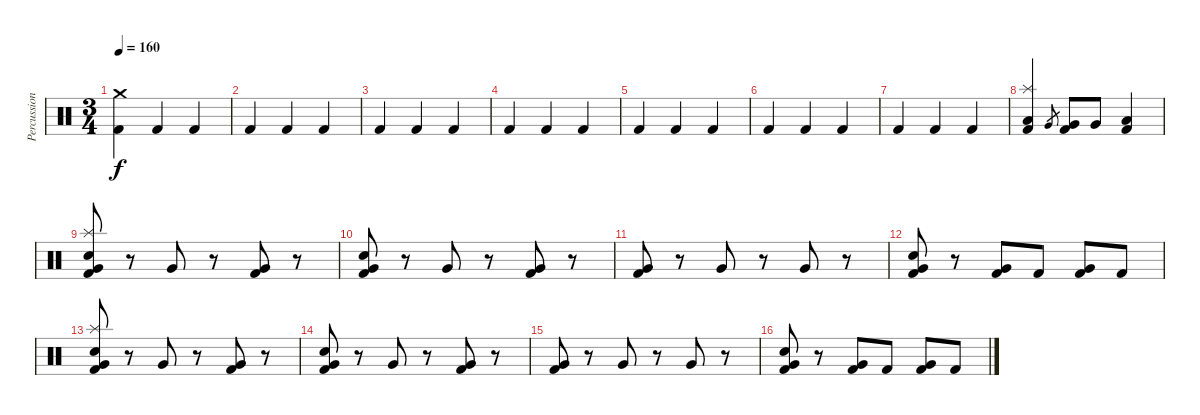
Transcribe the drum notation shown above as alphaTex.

\track ("Percussion" "Percussion") {instrument percussion}
\staff {score}
\articulation defaults
\ts (3 4)
\tempo 160
\clef neutral
\ks c
("Crash medium (hit)" "Kick (hit) 2").4{dy f} "Kick (hit) 2".4 "Kick (hit) 2".4 |
"Kick (hit) 2".4 "Kick (hit) 2".4 "Kick (hit) 2".4 |
"Kick (hit) 2".4 "Kick (hit) 2".4 "Kick (hit) 2".4 |
"Kick (hit) 2".4 "Kick (hit) 2".4 "Kick (hit) 2".4 |
"Kick (hit) 2".4 "Kick (hit) 2".4 "Kick (hit) 2".4 |
"Kick (hit) 2".4 "Kick (hit) 2".4 "Kick (hit) 2".4 |
"Kick (hit) 2".4 "Kick (hit) 2".4 "Kick (hit) 2".4 |
("Splash (hit)" "Low Tom (hit)" "Kick (hit) 2").4 "Very Low Tom (hit)".8{gr} ("Very Low Tom (hit)" "Kick (hit) 2").8 "Very Low Tom (hit)".8 ("Low Floor Tom (hit)" "Kick (hit) 2").4 |
("Splash (hit)" "Snare (hit) 2" "Kick (hit) 2" "Very Low Tom (hit)").8 r.8 "Very Low Tom (hit)".8 r.8 ("Kick (hit) 2" "Very Low Tom (hit)").8 r.8 |
("Snare (hit) 2" "Kick (hit) 2" "Very Low Tom (hit)").8 r.8 "Very Low Tom (hit)".8 r.8 ("Kick (hit) 2" "Very Low Tom (hit)").8 r.8 |
("Kick (hit) 2" "Very Low Tom (hit)").8 r.8 "Very Low Tom (hit)".8 r.8 "Very Low Tom (hit)".8 r.8 |
("Snare (hit) 2" "Kick (hit) 2" "Very Low Tom (hit)").8 r.8 ("Kick (hit) 2" "Very Low Tom (hit)").8 "Kick (hit) 2".8 ("Kick (hit) 2" "Very Low Tom (hit)").8 "Kick (hit) 2".8 |
("Splash (hit)" "Snare (hit) 2" "Kick (hit) 2" "Very Low Tom (hit)").8 r.8 "Very Low Tom (hit)".8 r.8 ("Kick (hit) 2" "Very Low Tom (hit)").8 r.8 |
("Snare (hit) 2" "Kick (hit) 2" "Very Low Tom (hit)").8 r.8 "Very Low Tom (hit)".8 r.8 ("Kick (hit) 2" "Very Low Tom (hit)").8 r.8 |
("Kick (hit) 2" "Very Low Tom (hit)").8 r.8 "Very Low Tom (hit)".8 r.8 "Very Low Tom (hit)".8 r.8 |
("Snare (hit) 2" "Kick (hit) 2" "Very Low Tom (hit)").8 r.8 ("Kick (hit) 2" "Very Low Tom (hit)").8 "Kick (hit) 2".8 ("Kick (hit) 2" "Very Low Tom (hit)").8 "Kick (hit) 2".8
